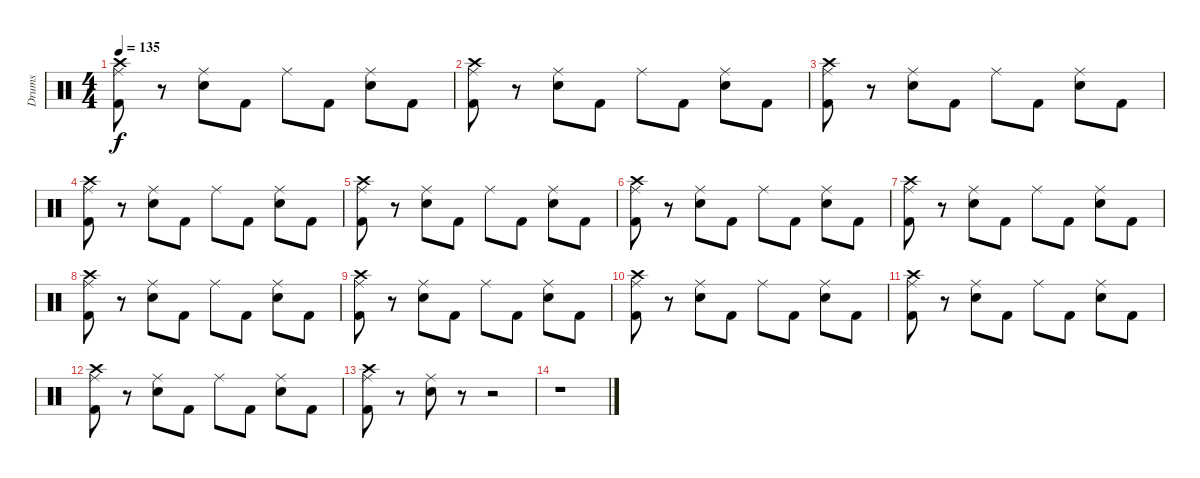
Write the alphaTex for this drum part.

\track ("Drums" "Drums") {instrument percussion}
\staff {score}
\articulation defaults
\ts (4 4)
\tempo 135
\clef neutral
\ks c
("Ride (middle)" "Kick (hit) 2" "Crash high (hit)").8{dy f} r.8 ("Ride (middle)" "Snare (hit) 2").8 "Kick (hit) 2".8 "Ride (middle)".8 "Kick (hit) 2".8 ("Ride (middle)" "Snare (hit) 2").8 "Kick (hit) 2".8 |
("Ride (middle)" "Kick (hit) 2" "Crash high (hit)").8 r.8 ("Ride (middle)" "Snare (hit) 2").8 "Kick (hit) 2".8 "Ride (middle)".8 "Kick (hit) 2".8 ("Ride (middle)" "Snare (hit) 2").8 "Kick (hit) 2".8 |
("Ride (middle)" "Kick (hit) 2" "Crash high (hit)").8 r.8 ("Ride (middle)" "Snare (hit) 2").8 "Kick (hit) 2".8 "Ride (middle)".8 "Kick (hit) 2".8 ("Ride (middle)" "Snare (hit) 2").8 "Kick (hit) 2".8 |
("Ride (middle)" "Kick (hit) 2" "Crash high (hit)").8 r.8 ("Ride (middle)" "Snare (hit) 2").8 "Kick (hit) 2".8 "Ride (middle)".8 "Kick (hit) 2".8 ("Ride (middle)" "Snare (hit) 2").8 "Kick (hit) 2".8 |
("Ride (middle)" "Kick (hit) 2" "Crash high (hit)").8 r.8 ("Ride (middle)" "Snare (hit) 2").8 "Kick (hit) 2".8 "Ride (middle)".8 "Kick (hit) 2".8 ("Ride (middle)" "Snare (hit) 2").8 "Kick (hit) 2".8 |
("Ride (middle)" "Kick (hit) 2" "Crash high (hit)").8 r.8 ("Ride (middle)" "Snare (hit) 2").8 "Kick (hit) 2".8 "Ride (middle)".8 "Kick (hit) 2".8 ("Ride (middle)" "Snare (hit) 2").8 "Kick (hit) 2".8 |
("Ride (middle)" "Kick (hit) 2" "Crash high (hit)").8 r.8 ("Ride (middle)" "Snare (hit) 2").8 "Kick (hit) 2".8 "Ride (middle)".8 "Kick (hit) 2".8 ("Ride (middle)" "Snare (hit) 2").8 "Kick (hit) 2".8 |
("Ride (middle)" "Kick (hit) 2" "Crash high (hit)").8 r.8 ("Ride (middle)" "Snare (hit) 2").8 "Kick (hit) 2".8 "Ride (middle)".8 "Kick (hit) 2".8 ("Ride (middle)" "Snare (hit) 2").8 "Kick (hit) 2".8 |
("Ride (middle)" "Kick (hit) 2" "Crash high (hit)").8 r.8 ("Ride (middle)" "Snare (hit) 2").8 "Kick (hit) 2".8 "Ride (middle)".8 "Kick (hit) 2".8 ("Ride (middle)" "Snare (hit) 2").8 "Kick (hit) 2".8 |
("Ride (middle)" "Kick (hit) 2" "Crash high (hit)").8 r.8 ("Ride (middle)" "Snare (hit) 2").8 "Kick (hit) 2".8 "Ride (middle)".8 "Kick (hit) 2".8 ("Ride (middle)" "Snare (hit) 2").8 "Kick (hit) 2".8 |
("Ride (middle)" "Kick (hit) 2" "Crash high (hit)").8 r.8 ("Ride (middle)" "Snare (hit) 2").8 "Kick (hit) 2".8 "Ride (middle)".8 "Kick (hit) 2".8 ("Ride (middle)" "Snare (hit) 2").8 "Kick (hit) 2".8 |
("Ride (middle)" "Kick (hit) 2" "Crash high (hit)").8 r.8 ("Ride (middle)" "Snare (hit) 2").8 "Kick (hit) 2".8 "Ride (middle)".8 "Kick (hit) 2".8 ("Ride (middle)" "Snare (hit) 2").8 "Kick (hit) 2".8 |
("Ride (middle)" "Kick (hit) 2" "Crash high (hit)").8 r.8 ("Ride (middle)" "Snare (hit) 2").8 r.8 r.2 |
r.1
